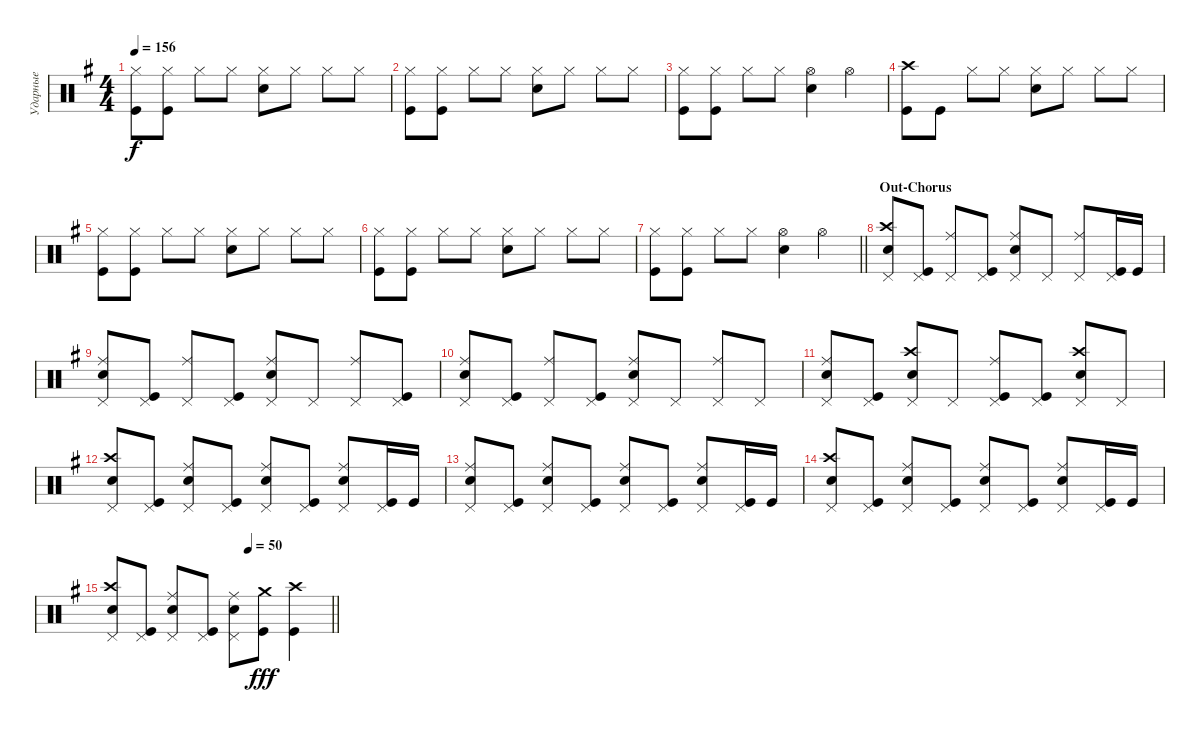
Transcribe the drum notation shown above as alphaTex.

\track ("Ударные" "Ударные") {instrument percussion}
\staff {score}
\articulation defaults
\ts (4 4)
\tempo 156
\clef neutral
\ks eminor
("Hi-Hat (closed)" "Kick (hit)").8{dy f} ("Hi-Hat (closed)" "Kick (hit)").8 "Hi-Hat (closed)".8 "Hi-Hat (closed)".8 ("Hi-Hat (closed)" "Snare (hit) 2").8 "Hi-Hat (closed)".8 "Hi-Hat (closed)".8 "Hi-Hat (closed)".8 |
("Hi-Hat (closed)" "Kick (hit)").8 ("Hi-Hat (closed)" "Kick (hit)").8 "Hi-Hat (closed)".8 "Hi-Hat (closed)".8 ("Hi-Hat (closed)" "Snare (hit) 2").8 "Hi-Hat (closed)".8 "Hi-Hat (closed)".8 "Hi-Hat (closed)".8 |
("Hi-Hat (closed)" "Kick (hit)").8 ("Hi-Hat (closed)" "Kick (hit)").8 "Hi-Hat (closed)".8 "Hi-Hat (closed)".8 ("Hi-Hat (open)" "Snare (hit) 2").4 "Hi-Hat (open)".4 |
("Kick (hit)" "Crash high (hit)").8 "Kick (hit)".8 "Hi-Hat (closed)".8 "Hi-Hat (closed)".8 ("Hi-Hat (closed)" "Snare (hit) 2").8 "Hi-Hat (closed)".8 "Hi-Hat (closed)".8 "Hi-Hat (closed)".8 |
("Hi-Hat (closed)" "Kick (hit)").8 ("Hi-Hat (closed)" "Kick (hit)").8 "Hi-Hat (closed)".8 "Hi-Hat (closed)".8 ("Hi-Hat (closed)" "Snare (hit) 2").8 "Hi-Hat (closed)".8 "Hi-Hat (closed)".8 "Hi-Hat (closed)".8 |
("Hi-Hat (closed)" "Kick (hit)").8 ("Hi-Hat (closed)" "Kick (hit)").8 "Hi-Hat (closed)".8 "Hi-Hat (closed)".8 ("Hi-Hat (closed)" "Snare (hit) 2").8 "Hi-Hat (closed)".8 "Hi-Hat (closed)".8 "Hi-Hat (closed)".8 |
\barLineRight lightlight
("Hi-Hat (closed)" "Kick (hit)").8 ("Hi-Hat (closed)" "Kick (hit)").8 "Hi-Hat (closed)".8 "Hi-Hat (closed)".8 ("Hi-Hat (open)" "Snare (hit) 2").4 "Hi-Hat (open)".4 |
\section ("" "Out-Chorus")
("Snare (hit) 2" "Crash high (hit)" "Pedal Hi-Hat (hit)").8 ("Kick (hit)" "Pedal Hi-Hat (hit)").8 ("Ride (middle)" "Pedal Hi-Hat (hit)").8 ("Kick (hit)" "Pedal Hi-Hat (hit)").8 ("Ride (middle)" "Snare (hit) 2" "Pedal Hi-Hat (hit)").8 "Pedal Hi-Hat (hit)".8 ("Ride (middle)" "Pedal Hi-Hat (hit)").8 ("Kick (hit)" "Pedal Hi-Hat (hit)").16 "Kick (hit)".16 |
("Pedal Hi-Hat (hit)" "Snare (hit) 2" "Ride (middle)").8 ("Pedal Hi-Hat (hit)" "Kick (hit)").8 ("Pedal Hi-Hat (hit)" "Ride (middle)").8 ("Pedal Hi-Hat (hit)" "Kick (hit)").8 ("Pedal Hi-Hat (hit)" "Snare (hit) 2" "Ride (middle)").8 "Pedal Hi-Hat (hit)".8 ("Pedal Hi-Hat (hit)" "Ride (middle)").8 ("Pedal Hi-Hat (hit)" "Kick (hit)").8 |
("Pedal Hi-Hat (hit)" "Snare (hit) 2" "Ride (middle)").8 ("Pedal Hi-Hat (hit)" "Kick (hit)").8 ("Pedal Hi-Hat (hit)" "Ride (middle)").8 ("Pedal Hi-Hat (hit)" "Kick (hit)").8 ("Pedal Hi-Hat (hit)" "Snare (hit) 2" "Ride (middle)").8 "Pedal Hi-Hat (hit)".8 ("Pedal Hi-Hat (hit)" "Ride (middle)").8 "Pedal Hi-Hat (hit)".8 |
("Pedal Hi-Hat (hit)" "Snare (hit) 2" "Ride (middle)").8 ("Pedal Hi-Hat (hit)" "Kick (hit)").8 ("Pedal Hi-Hat (hit)" "Snare (hit) 2" "Crash high (hit)").8 "Pedal Hi-Hat (hit)".8 ("Ride (middle)" "Pedal Hi-Hat (hit)" "Kick (hit)").8 ("Pedal Hi-Hat (hit)" "Kick (hit)").8 ("Crash high (hit)" "Snare (hit) 2" "Pedal Hi-Hat (hit)").8 "Pedal Hi-Hat (hit)".8 |
("Pedal Hi-Hat (hit)" "Snare (hit) 2" "Crash high (hit)").8 ("Pedal Hi-Hat (hit)" "Kick (hit)").8 ("Pedal Hi-Hat (hit)" "Snare (hit) 2" "Ride (middle)").8 ("Pedal Hi-Hat (hit)" "Kick (hit)").8 ("Pedal Hi-Hat (hit)" "Snare (hit) 2" "Ride (middle)").8 ("Pedal Hi-Hat (hit)" "Kick (hit)").8 ("Pedal Hi-Hat (hit)" "Snare (hit) 2" "Ride (middle)").8 ("Pedal Hi-Hat (hit)" "Kick (hit)").16 "Kick (hit)".16 |
("Pedal Hi-Hat (hit)" "Snare (hit) 2" "Ride (middle)").8 ("Pedal Hi-Hat (hit)" "Kick (hit)").8 ("Pedal Hi-Hat (hit)" "Snare (hit) 2" "Ride (middle)").8 ("Pedal Hi-Hat (hit)" "Kick (hit)").8 ("Pedal Hi-Hat (hit)" "Snare (hit) 2" "Ride (middle)").8 ("Pedal Hi-Hat (hit)" "Kick (hit)").8 ("Pedal Hi-Hat (hit)" "Snare (hit) 2" "Ride (middle)").8 ("Pedal Hi-Hat (hit)" "Kick (hit)").16 "Kick (hit)".16 |
("Pedal Hi-Hat (hit)" "Snare (hit) 2" "Crash high (hit)").8 ("Pedal Hi-Hat (hit)" "Kick (hit)").8 ("Pedal Hi-Hat (hit)" "Snare (hit) 2" "Ride (middle)").8 ("Pedal Hi-Hat (hit)" "Kick (hit)").8 ("Pedal Hi-Hat (hit)" "Snare (hit) 2" "Ride (middle)").8 ("Pedal Hi-Hat (hit)" "Kick (hit)").8 ("Pedal Hi-Hat (hit)" "Snare (hit) 2" "Ride (middle)").8 ("Pedal Hi-Hat (hit)" "Kick (hit)").16 "Kick (hit)".16 |
\tempo (50 0.625)
\barLineRight lightlight
("Pedal Hi-Hat (hit)" "Snare (hit) 2" "Crash high (hit)").8 ("Pedal Hi-Hat (hit)" "Kick (hit)").8 ("Pedal Hi-Hat (hit)" "Snare (hit) 2" "Ride (middle)").8 ("Pedal Hi-Hat (hit)" "Kick (hit)").8 ("Pedal Hi-Hat (hit)" "Snare (hit) 2" "Ride (middle)").8 ("Crash medium (hit)" "Kick (hit)").8{dy fff} ("Crash high (hit)" "Kick (hit)").4
